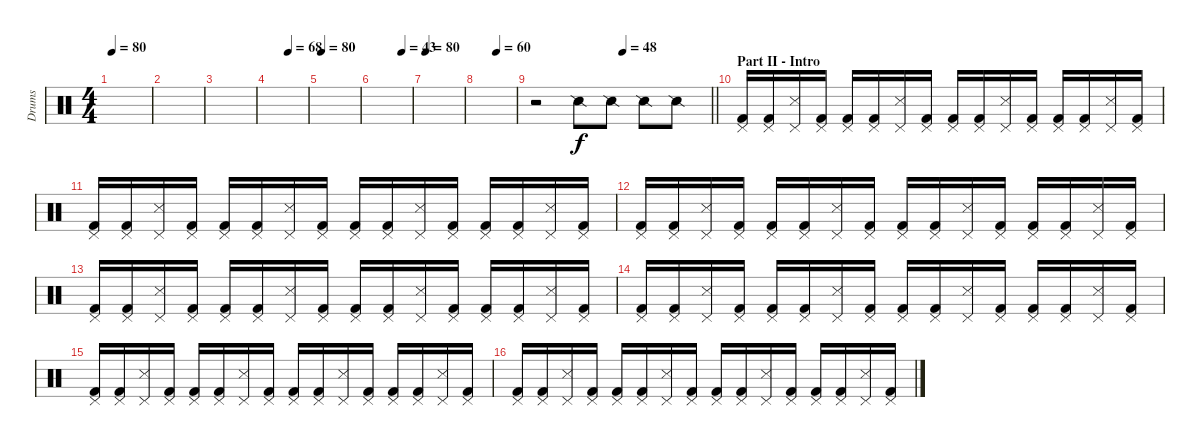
\track ("Drums" "Drums") {instrument percussion}
\staff {score}
\articulation defaults
\ts (4 4)
\tempo 80
\clef neutral
\ks c
|
|
|
\tempo (68 0.5)
|
\tempo 80
|
\tempo (43 0.75)
|
\tempo 80
|
\tempo (60 0.5)
|
\tempo (48 0.5)
\barLineRight lightlight
r.2 "Snare (side stick) 2".8 "Snare (side stick) 2".8 "Snare (side stick) 2".8 "Snare (side stick) 2".8 |
\section ("" "Part II - Intro")
("Pedal Hi-Hat (hit)" "Kick (hit) 2").16 ("Pedal Hi-Hat (hit)" "Kick (hit) 2").16 ("Pedal Hi-Hat (hit)" "Snare (side stick) 3").16 ("Pedal Hi-Hat (hit)" "Kick (hit) 2").16 ("Pedal Hi-Hat (hit)" "Kick (hit) 2").16 ("Pedal Hi-Hat (hit)" "Kick (hit) 2").16 ("Pedal Hi-Hat (hit)" "Snare (side stick) 3").16 ("Pedal Hi-Hat (hit)" "Kick (hit) 2").16 ("Pedal Hi-Hat (hit)" "Kick (hit) 2").16 ("Pedal Hi-Hat (hit)" "Kick (hit) 2").16 ("Pedal Hi-Hat (hit)" "Snare (side stick) 3").16 ("Pedal Hi-Hat (hit)" "Kick (hit) 2").16 ("Pedal Hi-Hat (hit)" "Kick (hit) 2").16 ("Pedal Hi-Hat (hit)" "Kick (hit) 2").16 ("Pedal Hi-Hat (hit)" "Snare (side stick) 3").16 ("Pedal Hi-Hat (hit)" "Kick (hit) 2").16 |
("Pedal Hi-Hat (hit)" "Kick (hit) 2").16 ("Pedal Hi-Hat (hit)" "Kick (hit) 2").16 ("Pedal Hi-Hat (hit)" "Snare (side stick) 3").16 ("Pedal Hi-Hat (hit)" "Kick (hit) 2").16 ("Pedal Hi-Hat (hit)" "Kick (hit) 2").16 ("Pedal Hi-Hat (hit)" "Kick (hit) 2").16 ("Pedal Hi-Hat (hit)" "Snare (side stick) 3").16 ("Pedal Hi-Hat (hit)" "Kick (hit) 2").16 ("Pedal Hi-Hat (hit)" "Kick (hit) 2").16 ("Pedal Hi-Hat (hit)" "Kick (hit) 2").16 ("Pedal Hi-Hat (hit)" "Snare (side stick) 3").16 ("Pedal Hi-Hat (hit)" "Kick (hit) 2").16 ("Pedal Hi-Hat (hit)" "Kick (hit) 2").16 ("Pedal Hi-Hat (hit)" "Kick (hit) 2").16 ("Pedal Hi-Hat (hit)" "Snare (side stick) 3").16 ("Pedal Hi-Hat (hit)" "Kick (hit) 2").16 |
("Pedal Hi-Hat (hit)" "Kick (hit) 2").16 ("Pedal Hi-Hat (hit)" "Kick (hit) 2").16 ("Pedal Hi-Hat (hit)" "Snare (side stick) 3").16 ("Pedal Hi-Hat (hit)" "Kick (hit) 2").16 ("Pedal Hi-Hat (hit)" "Kick (hit) 2").16 ("Pedal Hi-Hat (hit)" "Kick (hit) 2").16 ("Pedal Hi-Hat (hit)" "Snare (side stick) 3").16 ("Pedal Hi-Hat (hit)" "Kick (hit) 2").16 ("Pedal Hi-Hat (hit)" "Kick (hit) 2").16 ("Pedal Hi-Hat (hit)" "Kick (hit) 2").16 ("Pedal Hi-Hat (hit)" "Snare (side stick) 3").16 ("Pedal Hi-Hat (hit)" "Kick (hit) 2").16 ("Pedal Hi-Hat (hit)" "Kick (hit) 2").16 ("Pedal Hi-Hat (hit)" "Kick (hit) 2").16 ("Pedal Hi-Hat (hit)" "Snare (side stick) 3").16 ("Pedal Hi-Hat (hit)" "Kick (hit) 2").16 |
("Pedal Hi-Hat (hit)" "Kick (hit) 2").16 ("Pedal Hi-Hat (hit)" "Kick (hit) 2").16 ("Pedal Hi-Hat (hit)" "Snare (side stick) 3").16 ("Pedal Hi-Hat (hit)" "Kick (hit) 2").16 ("Pedal Hi-Hat (hit)" "Kick (hit) 2").16 ("Pedal Hi-Hat (hit)" "Kick (hit) 2").16 ("Pedal Hi-Hat (hit)" "Snare (side stick) 3").16 ("Pedal Hi-Hat (hit)" "Kick (hit) 2").16 ("Pedal Hi-Hat (hit)" "Kick (hit) 2").16 ("Pedal Hi-Hat (hit)" "Kick (hit) 2").16 ("Pedal Hi-Hat (hit)" "Snare (side stick) 3").16 ("Pedal Hi-Hat (hit)" "Kick (hit) 2").16 ("Pedal Hi-Hat (hit)" "Kick (hit) 2").16 ("Pedal Hi-Hat (hit)" "Kick (hit) 2").16 ("Pedal Hi-Hat (hit)" "Snare (side stick) 3").16 ("Pedal Hi-Hat (hit)" "Kick (hit) 2").16 |
("Pedal Hi-Hat (hit)" "Kick (hit) 2").16 ("Pedal Hi-Hat (hit)" "Kick (hit) 2").16 ("Pedal Hi-Hat (hit)" "Snare (side stick) 3").16 ("Pedal Hi-Hat (hit)" "Kick (hit) 2").16 ("Pedal Hi-Hat (hit)" "Kick (hit) 2").16 ("Pedal Hi-Hat (hit)" "Kick (hit) 2").16 ("Pedal Hi-Hat (hit)" "Snare (side stick) 3").16 ("Pedal Hi-Hat (hit)" "Kick (hit) 2").16 ("Pedal Hi-Hat (hit)" "Kick (hit) 2").16 ("Pedal Hi-Hat (hit)" "Kick (hit) 2").16 ("Pedal Hi-Hat (hit)" "Snare (side stick) 3").16 ("Pedal Hi-Hat (hit)" "Kick (hit) 2").16 ("Pedal Hi-Hat (hit)" "Kick (hit) 2").16 ("Pedal Hi-Hat (hit)" "Kick (hit) 2").16 ("Pedal Hi-Hat (hit)" "Snare (side stick) 3").16 ("Pedal Hi-Hat (hit)" "Kick (hit) 2").16 |
("Pedal Hi-Hat (hit)" "Kick (hit) 2").16 ("Pedal Hi-Hat (hit)" "Kick (hit) 2").16 ("Pedal Hi-Hat (hit)" "Snare (side stick) 3").16 ("Pedal Hi-Hat (hit)" "Kick (hit) 2").16 ("Pedal Hi-Hat (hit)" "Kick (hit) 2").16 ("Pedal Hi-Hat (hit)" "Kick (hit) 2").16 ("Pedal Hi-Hat (hit)" "Snare (side stick) 3").16 ("Pedal Hi-Hat (hit)" "Kick (hit) 2").16 ("Pedal Hi-Hat (hit)" "Kick (hit) 2").16 ("Pedal Hi-Hat (hit)" "Kick (hit) 2").16 ("Pedal Hi-Hat (hit)" "Snare (side stick) 3").16 ("Pedal Hi-Hat (hit)" "Kick (hit) 2").16 ("Pedal Hi-Hat (hit)" "Kick (hit) 2").16 ("Pedal Hi-Hat (hit)" "Kick (hit) 2").16 ("Pedal Hi-Hat (hit)" "Snare (side stick) 3").16 ("Pedal Hi-Hat (hit)" "Kick (hit) 2").16 |
("Pedal Hi-Hat (hit)" "Kick (hit) 2").16 ("Pedal Hi-Hat (hit)" "Kick (hit) 2").16 ("Pedal Hi-Hat (hit)" "Snare (side stick) 3").16 ("Pedal Hi-Hat (hit)" "Kick (hit) 2").16 ("Pedal Hi-Hat (hit)" "Kick (hit) 2").16 ("Pedal Hi-Hat (hit)" "Kick (hit) 2").16 ("Pedal Hi-Hat (hit)" "Snare (side stick) 3").16 ("Pedal Hi-Hat (hit)" "Kick (hit) 2").16 ("Pedal Hi-Hat (hit)" "Kick (hit) 2").16 ("Pedal Hi-Hat (hit)" "Kick (hit) 2").16 ("Pedal Hi-Hat (hit)" "Snare (side stick) 3").16 ("Pedal Hi-Hat (hit)" "Kick (hit) 2").16 ("Pedal Hi-Hat (hit)" "Kick (hit) 2").16 ("Pedal Hi-Hat (hit)" "Kick (hit) 2").16 ("Pedal Hi-Hat (hit)" "Snare (side stick) 3").16 ("Pedal Hi-Hat (hit)" "Kick (hit) 2").16
